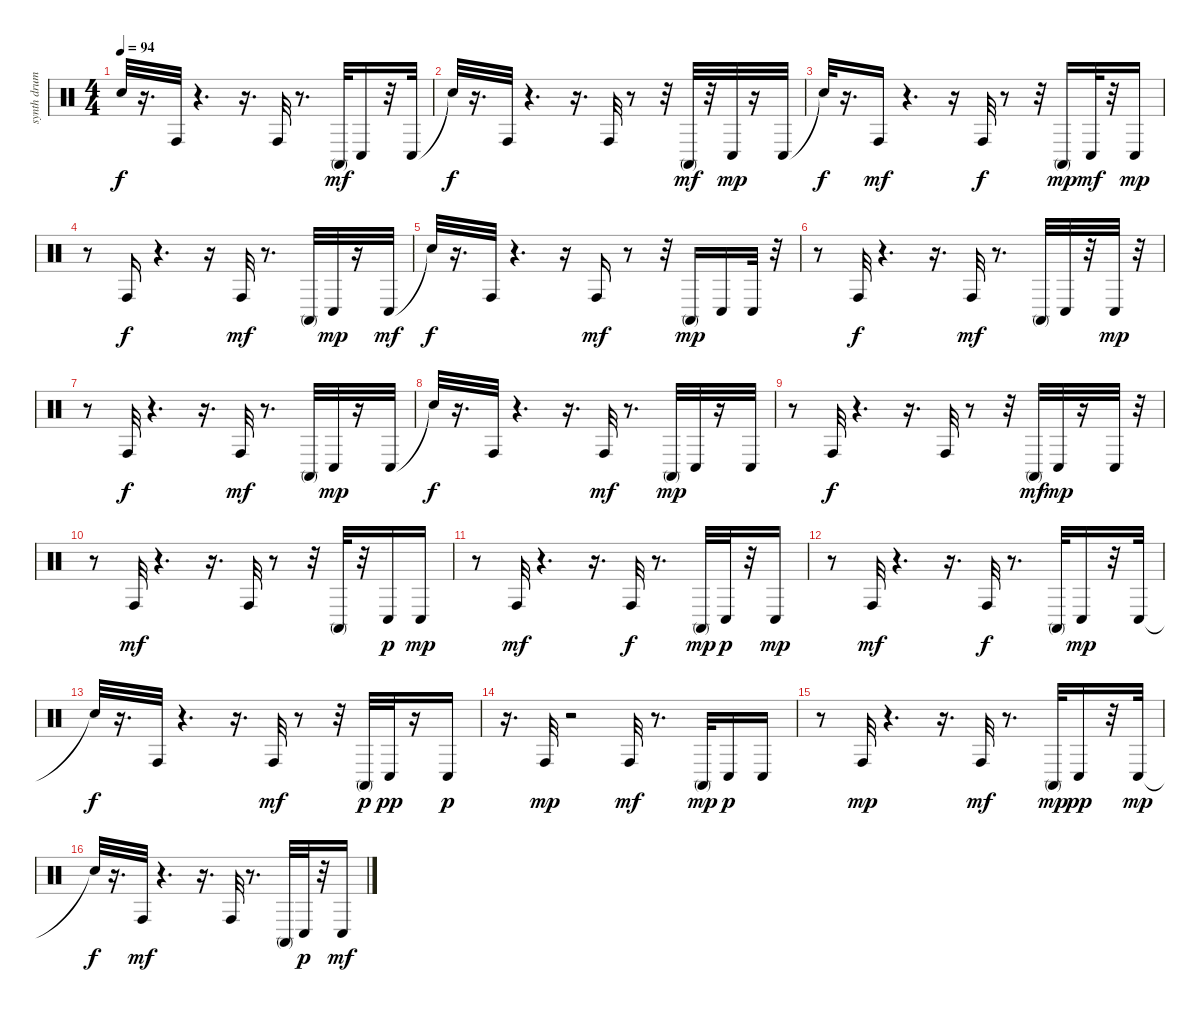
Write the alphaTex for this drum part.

\track ("synth drum" "synth drum") {instrument percussion}
\staff {score}
\articulation defaults
\ts (4 4)
\tempo 94
\clef neutral
\ks c "Snare (hit)"{t}.32{dy f}
r.16{d} "Conga high (hit)".32 r.4{d} r.16{d} "Conga high (hit)".32 r.8{d} "Conga high (mute)".32{dy mf} "Conga low (hit)".16 r.32 "Conga low (hit)".32 |
"Snare (hit)"{t}.32{dy f} r.16{d} "Conga high (hit)".32 r.4{d} r.16{d} "Conga high (hit)".32 r.8 r.32 "Conga high (mute)".32{dy mf} r.32 "Conga low (hit)".32{dy mp} r.16 "Conga low (hit)".32 |
"Snare (hit)"{t}.32{dy f} r.16{d} "Conga high (hit)".16{dy mf} r.4{d} r.16 "Conga high (hit)".32{dy f} r.8 r.32 "Conga high (mute)".16{dy mp} "Conga low (hit)".32{dy mf} r.32 "Conga low (hit)".16{dy mp} |
r.8 "Conga high (hit)".16{dy f} r.4{d} r.16 "Conga high (hit)".32{dy mf} r.8{d} "Conga high (mute)".32 "Conga low (hit)".32{dy mp} r.16 "Conga low (hit)".32{dy mf} |
"Snare (hit)"{t}.32{dy f} r.16{d} "Conga high (hit)".32 r.4{d} r.16 "Conga high (hit)".16{dy mf} r.8 r.32 "Conga high (mute)".16{dy mp} "Conga low (hit)".16 "Conga low (hit)".32 r.32 |
r.8 "Conga high (hit)".32{dy f} r.4{d} r.16{d} "Conga high (hit)".32{dy mf} r.8{d} "Conga high (mute)".32 "Conga low (hit)".32 r.32 "Conga low (hit)".32{dy mp} r.32 |
r.8 "Conga high (hit)".32{dy f} r.4{d} r.16{d} "Conga high (hit)".32{dy mf} r.8{d} "Conga high (mute)".32 "Conga low (hit)".32{dy mp} r.16 "Conga low (hit)".32 |
"Snare (hit)"{t}.32{dy f} r.16{d} "Conga high (hit)".32 r.4{d} r.16{d} "Conga high (hit)".32{dy mf} r.8{d} "Conga high (mute)".32{dy mp} "Conga low (hit)".32 r.16 "Conga low (hit)".32 |
r.8 "Conga high (hit)".32{dy f} r.4{d} r.16{d} "Conga high (hit)".32 r.8 r.32 "Conga high (mute)".32{dy mf} "Conga low (hit)".32{dy mp} r.16 "Conga low (hit)".32 r.32 |
r.8 "Conga high (hit)".32{dy mf} r.4{d} r.16{d} "Conga high (hit)".32 r.8 r.32 "Conga high (mute)".32 r.32 "Conga low (hit)".16{dy p} "Conga low (hit)".16{dy mp} |
r.8 "Conga high (hit)".32{dy mf} r.4{d} r.16{d} "Conga high (hit)".32{dy f} r.8{d} "Conga high (mute)".32{dy mp} "Conga low (hit)".32{dy p} r.32 "Conga low (hit)".16{dy mp} |
r.8 "Conga high (hit)".32{dy mf} r.4{d} r.16{d} "Conga high (hit)".32{dy f} r.8{d} "Conga high (mute)".32 "Conga low (hit)".16{dy mp} r.32 "Conga low (hit)".32 |
"Snare (hit)"{t}.32{dy f} r.16{d} "Conga high (hit)".32 r.4{d} r.16{d} "Conga high (hit)".32{dy mf} r.8 r.32 "Conga high (mute)".32{dy p} "Conga low (hit)".32{dy pp} r.16 "Conga low (hit)".16{dy p} |
r.16{d} "Conga high (hit)".32{dy mp} r.2 "Conga high (hit)".32{dy mf} r.8{d} "Conga high (mute)".32{dy mp} "Conga low (hit)".16{dy p} "Conga low (hit)".16 |
r.8 "Conga high (hit)".32{dy mp} r.4{d} r.16{d} "Conga high (hit)".32{dy mf} r.8{d} "Conga high (mute)".32{dy mp} "Conga low (hit)".16{dy pp} r.32 "Conga low (hit)".32{dy mp} |
"Snare (hit)"{t}.32{dy f} r.16{d} "Conga high (hit)".32{dy mf} r.4{d} r.16{d} "Conga high (hit)".32 r.8{d} "Conga high (mute)".32 "Conga low (hit)".32{dy p} r.32 "Conga low (hit)".16{dy mf}
